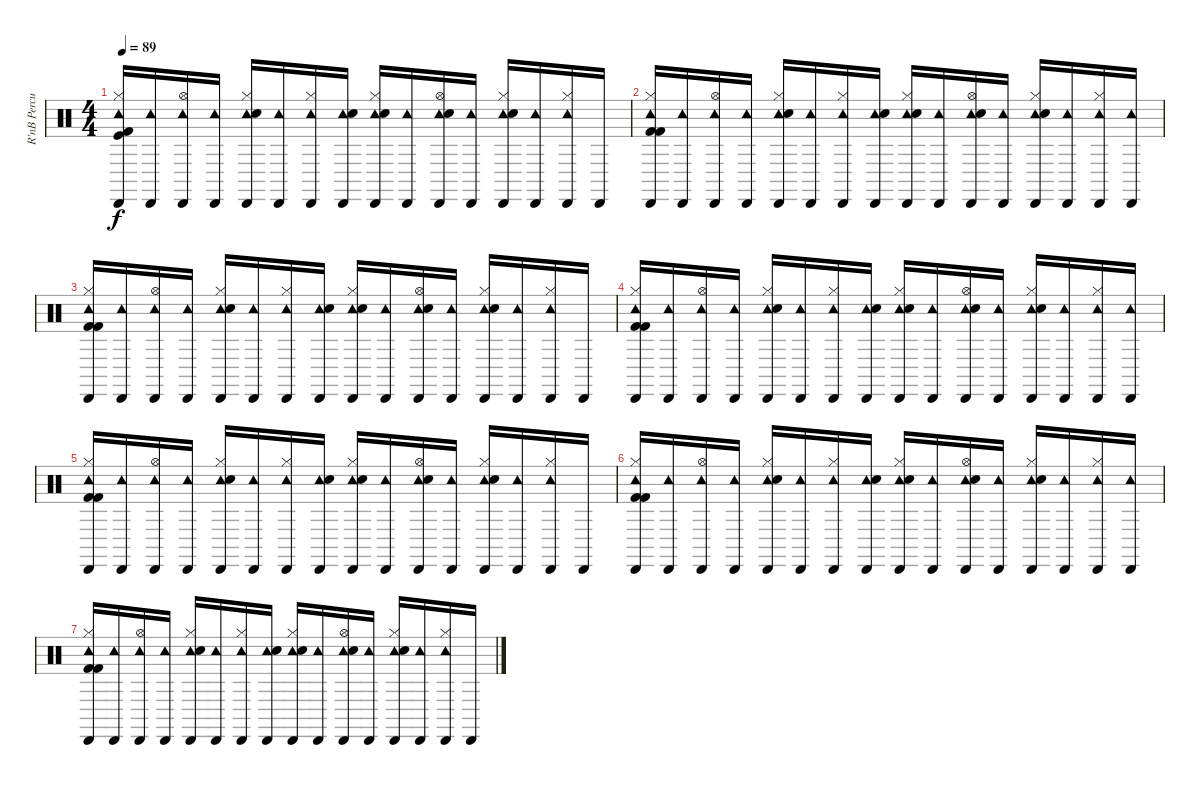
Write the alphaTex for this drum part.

\track ("R'nB Percussion" "R'nB Percu") {instrument percussion}
\staff {score}
\articulation defaults
\ts (4 4)
\tempo 89
\clef neutral
\ks c
("Tambourine (hit)" "Cabasa (hit)" "Kick (hit) 2" "Kick (hit)" "Hi-Hat (closed)").16{dy f} ("Cabasa (hit)" "Tambourine (hit)").16 ("Tambourine (hit)" "Cabasa (hit)" "Hi-Hat (open)").16 ("Tambourine (hit)" "Cabasa (hit)").16 ("Cabasa (hit)" "Tambourine (hit)" "Hi-Hat (closed)" "Hand Clap (hit)").16 ("Cabasa (hit)" "Tambourine (hit)").16 ("Cabasa (hit)" "Tambourine (hit)" "Hi-Hat (closed)").16 ("Tambourine (hit)" "Cabasa (hit)" "Hand Clap (hit)").16 ("Cabasa (hit)" "Tambourine (hit)" "Hand Clap (hit)" "Hi-Hat (closed)").16 ("Tambourine (hit)" "Cabasa (hit)").16 ("Tambourine (hit)" "Cabasa (hit)" "Hi-Hat (open)" "Hand Clap (hit)").16 ("Cabasa (hit)" "Tambourine (hit)").16 ("Tambourine (hit)" "Cabasa (hit)" "Hi-Hat (closed)" "Hand Clap (hit)").16 ("Cabasa (hit)" "Tambourine (hit)").16 ("Cabasa (hit)" "Tambourine (hit)" "Hi-Hat (closed)").16 "Cabasa (hit)".16 |
("Cabasa (hit)" "Tambourine (hit)" "Kick (hit) 2" "Kick (hit) 2" "Hi-Hat (closed)").16 ("Tambourine (hit)" "Cabasa (hit)").16 ("Tambourine (hit)" "Cabasa (hit)" "Hi-Hat (open)").16 ("Cabasa (hit)" "Tambourine (hit)").16 ("Cabasa (hit)" "Tambourine (hit)" "Hi-Hat (closed)" "Hand Clap (hit)").16 ("Cabasa (hit)" "Tambourine (hit)").16 ("Cabasa (hit)" "Tambourine (hit)" "Hi-Hat (closed)").16 ("Tambourine (hit)" "Cabasa (hit)" "Hand Clap (hit)").16 ("Tambourine (hit)" "Cabasa (hit)" "Hi-Hat (closed)" "Hand Clap (hit)").16 ("Tambourine (hit)" "Cabasa (hit)").16 ("Tambourine (hit)" "Cabasa (hit)" "Hand Clap (hit)" "Hi-Hat (open)").16 ("Tambourine (hit)" "Cabasa (hit)").16 ("Cabasa (hit)" "Tambourine (hit)" "Hi-Hat (closed)" "Hand Clap (hit)").16 ("Cabasa (hit)" "Tambourine (hit)").16 ("Cabasa (hit)" "Tambourine (hit)" "Hi-Hat (closed)").16 ("Cabasa (hit)" "Tambourine (hit)").16 |
("Tambourine (hit)" "Cabasa (hit)" "Hi-Hat (closed)" "Kick (hit) 2" "Kick (hit) 2").16 ("Cabasa (hit)" "Tambourine (hit)").16 ("Tambourine (hit)" "Cabasa (hit)" "Hi-Hat (open)").16 ("Tambourine (hit)" "Cabasa (hit)").16 ("Tambourine (hit)" "Cabasa (hit)" "Hi-Hat (closed)" "Hand Clap (hit)").16 ("Cabasa (hit)" "Tambourine (hit)").16 ("Cabasa (hit)" "Tambourine (hit)" "Hi-Hat (closed)").16 ("Cabasa (hit)" "Tambourine (hit)" "Hand Clap (hit)").16 ("Cabasa (hit)" "Tambourine (hit)" "Hi-Hat (closed)" "Hand Clap (hit)").16 ("Cabasa (hit)" "Tambourine (hit)").16 ("Cabasa (hit)" "Tambourine (hit)" "Hand Clap (hit)" "Hi-Hat (open)").16 ("Cabasa (hit)" "Tambourine (hit)").16 ("Tambourine (hit)" "Cabasa (hit)" "Hi-Hat (closed)" "Hand Clap (hit)").16 ("Tambourine (hit)" "Cabasa (hit)").16 ("Tambourine (hit)" "Cabasa (hit)" "Hi-Hat (closed)").16 "Cabasa (hit)".16 |
("Cabasa (hit)" "Tambourine (hit)" "Kick (hit) 2" "Kick (hit) 2" "Hi-Hat (closed)").16 ("Tambourine (hit)" "Cabasa (hit)").16 ("Cabasa (hit)" "Tambourine (hit)" "Hi-Hat (open)").16 ("Cabasa (hit)" "Tambourine (hit)").16 ("Tambourine (hit)" "Cabasa (hit)" "Hand Clap (hit)" "Hi-Hat (closed)").16 ("Tambourine (hit)" "Cabasa (hit)").16 ("Cabasa (hit)" "Tambourine (hit)" "Hi-Hat (closed)").16 ("Tambourine (hit)" "Cabasa (hit)" "Hand Clap (hit)").16 ("Cabasa (hit)" "Tambourine (hit)" "Hand Clap (hit)" "Hi-Hat (closed)").16 ("Tambourine (hit)" "Cabasa (hit)").16 ("Tambourine (hit)" "Cabasa (hit)" "Hand Clap (hit)" "Hi-Hat (open)").16 ("Cabasa (hit)" "Tambourine (hit)").16 ("Cabasa (hit)" "Tambourine (hit)" "Hand Clap (hit)" "Hi-Hat (closed)").16 ("Tambourine (hit)" "Cabasa (hit)").16 ("Cabasa (hit)" "Tambourine (hit)" "Hi-Hat (closed)").16 ("Cabasa (hit)" "Tambourine (hit)").16 |
("Cabasa (hit)" "Tambourine (hit)" "Kick (hit) 2" "Hi-Hat (closed)" "Kick (hit) 2").16 ("Cabasa (hit)" "Tambourine (hit)").16 ("Cabasa (hit)" "Tambourine (hit)" "Hi-Hat (open)").16 ("Cabasa (hit)" "Tambourine (hit)").16 ("Tambourine (hit)" "Cabasa (hit)" "Hand Clap (hit)" "Hi-Hat (closed)").16 ("Cabasa (hit)" "Tambourine (hit)").16 ("Tambourine (hit)" "Cabasa (hit)" "Hi-Hat (closed)").16 ("Tambourine (hit)" "Cabasa (hit)" "Hand Clap (hit)").16 ("Tambourine (hit)" "Cabasa (hit)" "Hi-Hat (closed)" "Hand Clap (hit)").16 ("Tambourine (hit)" "Cabasa (hit)").16 ("Cabasa (hit)" "Tambourine (hit)" "Hand Clap (hit)" "Hi-Hat (open)").16 ("Cabasa (hit)" "Tambourine (hit)").16 ("Tambourine (hit)" "Cabasa (hit)" "Hand Clap (hit)" "Hi-Hat (closed)").16 ("Tambourine (hit)" "Cabasa (hit)").16 ("Tambourine (hit)" "Cabasa (hit)" "Hi-Hat (closed)").16 "Cabasa (hit)".16 |
("Tambourine (hit)" "Cabasa (hit)" "Kick (hit) 2" "Hi-Hat (closed)" "Kick (hit) 2").16 ("Tambourine (hit)" "Cabasa (hit)").16 ("Cabasa (hit)" "Tambourine (hit)" "Hi-Hat (open)").16 ("Tambourine (hit)" "Cabasa (hit)").16 ("Tambourine (hit)" "Cabasa (hit)" "Hand Clap (hit)" "Hi-Hat (closed)").16 ("Cabasa (hit)" "Tambourine (hit)").16 ("Tambourine (hit)" "Cabasa (hit)" "Hi-Hat (closed)").16 ("Tambourine (hit)" "Cabasa (hit)" "Hand Clap (hit)").16 ("Tambourine (hit)" "Cabasa (hit)" "Hi-Hat (closed)" "Hand Clap (hit)").16 ("Cabasa (hit)" "Tambourine (hit)").16 ("Cabasa (hit)" "Tambourine (hit)" "Hand Clap (hit)" "Hi-Hat (open)").16 ("Tambourine (hit)" "Cabasa (hit)").16 ("Cabasa (hit)" "Tambourine (hit)" "Hand Clap (hit)" "Hi-Hat (closed)").16 ("Tambourine (hit)" "Cabasa (hit)").16 ("Tambourine (hit)" "Cabasa (hit)" "Hi-Hat (closed)").16 ("Tambourine (hit)" "Cabasa (hit)").16 |
("Cabasa (hit)" "Tambourine (hit)" "Kick (hit) 2" "Hi-Hat (closed)" "Kick (hit) 2").16 ("Cabasa (hit)" "Tambourine (hit)").16 ("Cabasa (hit)" "Tambourine (hit)" "Hi-Hat (open)").16 ("Cabasa (hit)" "Tambourine (hit)").16 ("Tambourine (hit)" "Cabasa (hit)" "Hand Clap (hit)" "Hi-Hat (closed)").16 ("Cabasa (hit)" "Tambourine (hit)").16 ("Tambourine (hit)" "Cabasa (hit)" "Hi-Hat (closed)").16 ("Tambourine (hit)" "Cabasa (hit)" "Hand Clap (hit)").16 ("Tambourine (hit)" "Cabasa (hit)" "Hi-Hat (closed)" "Hand Clap (hit)").16 ("Tambourine (hit)" "Cabasa (hit)").16 ("Cabasa (hit)" "Tambourine (hit)" "Hand Clap (hit)" "Hi-Hat (open)").16 ("Cabasa (hit)" "Tambourine (hit)").16 ("Tambourine (hit)" "Cabasa (hit)" "Hand Clap (hit)" "Hi-Hat (closed)").16 ("Tambourine (hit)" "Cabasa (hit)").16 ("Tambourine (hit)" "Cabasa (hit)" "Hi-Hat (closed)").16 "Cabasa (hit)".16
